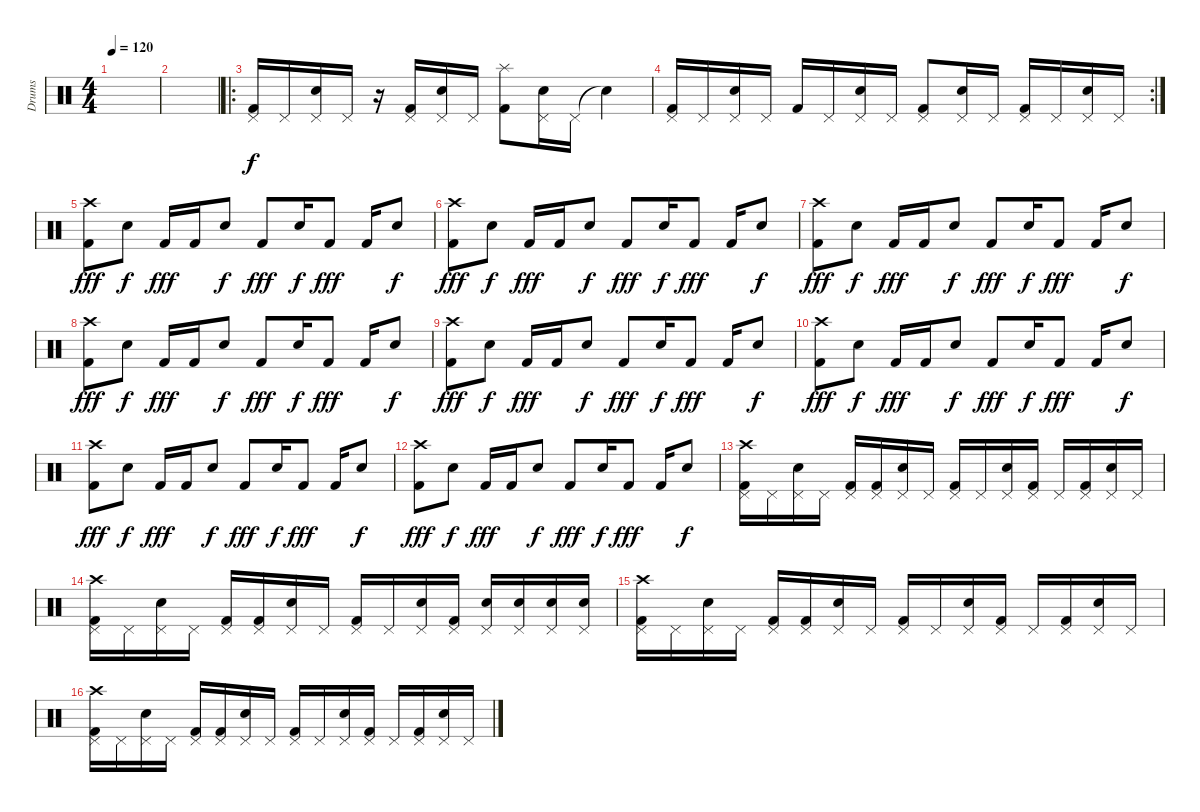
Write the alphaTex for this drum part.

\track ("Drums" "Drums") {instrument percussion}
\staff {score}
\articulation defaults
\ts (4 4)
\tempo 120
\clef neutral
\ks c
|
|
\ro
("Pedal Hi-Hat (hit)" "Kick (hit) 2").16 "Pedal Hi-Hat (hit)".16 ("Pedal Hi-Hat (hit)" "Electric Snare (hit)").16 "Pedal Hi-Hat (hit)".16 r.16 ("Pedal Hi-Hat (hit)" "Kick (hit) 2").16 ("Pedal Hi-Hat (hit)" "Electric Snare (hit)").16 "Pedal Hi-Hat (hit)".16 ("Splash (hit)" "Kick (hit) 2").8 ("Pedal Hi-Hat (hit)" "Electric Snare (hit)").16 "Pedal Hi-Hat (hit)".16 "Snare (hit)"{t}.4 |
\rc 2
("Pedal Hi-Hat (hit)" "Kick (hit) 2").16 "Pedal Hi-Hat (hit)".16 ("Pedal Hi-Hat (hit)" "Electric Snare (hit)").16 "Pedal Hi-Hat (hit)".16 "Kick (hit) 2".16 "Pedal Hi-Hat (hit)".16 ("Pedal Hi-Hat (hit)" "Electric Snare (hit)").16 "Pedal Hi-Hat (hit)".16 ("Pedal Hi-Hat (hit)" "Kick (hit) 2").8 ("Pedal Hi-Hat (hit)" "Electric Snare (hit)").16 "Pedal Hi-Hat (hit)".16 ("Pedal Hi-Hat (hit)" "Kick (hit) 2").16 "Pedal Hi-Hat (hit)".16 ("Pedal Hi-Hat (hit)" "Electric Snare (hit)").16 "Pedal Hi-Hat (hit)".16 |
("Crash high (hit)" "Kick (hit) 2").8{dy fff} "Electric Snare (hit)".8{dy f} "Kick (hit) 2".16{dy fff} "Kick (hit) 2".16 "Electric Snare (hit)".8{dy f} "Kick (hit) 2".8{dy fff} "Electric Snare (hit)".16{dy f} "Kick (hit) 2".8{dy fff} "Kick (hit) 2".16 "Electric Snare (hit)".8{dy f} |
("Crash high (hit)" "Kick (hit) 2").8{dy fff} "Electric Snare (hit)".8{dy f} "Kick (hit) 2".16{dy fff} "Kick (hit) 2".16 "Electric Snare (hit)".8{dy f} "Kick (hit) 2".8{dy fff} "Electric Snare (hit)".16{dy f} "Kick (hit) 2".8{dy fff} "Kick (hit) 2".16 "Electric Snare (hit)".8{dy f} |
("Crash high (hit)" "Kick (hit) 2").8{dy fff} "Electric Snare (hit)".8{dy f} "Kick (hit) 2".16{dy fff} "Kick (hit) 2".16 "Electric Snare (hit)".8{dy f} "Kick (hit) 2".8{dy fff} "Electric Snare (hit)".16{dy f} "Kick (hit) 2".8{dy fff} "Kick (hit) 2".16 "Electric Snare (hit)".8{dy f} |
("Crash high (hit)" "Kick (hit) 2").8{dy fff} "Electric Snare (hit)".8{dy f} "Kick (hit) 2".16{dy fff} "Kick (hit) 2".16 "Electric Snare (hit)".8{dy f} "Kick (hit) 2".8{dy fff} "Electric Snare (hit)".16{dy f} "Kick (hit) 2".8{dy fff} "Kick (hit) 2".16 "Electric Snare (hit)".8{dy f} |
("Crash high (hit)" "Kick (hit) 2").8{dy fff} "Electric Snare (hit)".8{dy f} "Kick (hit) 2".16{dy fff} "Kick (hit) 2".16 "Electric Snare (hit)".8{dy f} "Kick (hit) 2".8{dy fff} "Electric Snare (hit)".16{dy f} "Kick (hit) 2".8{dy fff} "Kick (hit) 2".16 "Electric Snare (hit)".8{dy f} |
("Crash high (hit)" "Kick (hit) 2").8{dy fff} "Electric Snare (hit)".8{dy f} "Kick (hit) 2".16{dy fff} "Kick (hit) 2".16 "Electric Snare (hit)".8{dy f} "Kick (hit) 2".8{dy fff} "Electric Snare (hit)".16{dy f} "Kick (hit) 2".8{dy fff} "Kick (hit) 2".16 "Electric Snare (hit)".8{dy f} |
("Crash high (hit)" "Kick (hit) 2").8{dy fff} "Electric Snare (hit)".8{dy f} "Kick (hit) 2".16{dy fff} "Kick (hit) 2".16 "Electric Snare (hit)".8{dy f} "Kick (hit) 2".8{dy fff} "Electric Snare (hit)".16{dy f} "Kick (hit) 2".8{dy fff} "Kick (hit) 2".16 "Electric Snare (hit)".8{dy f} |
("Crash high (hit)" "Kick (hit) 2").8{dy fff} "Electric Snare (hit)".8{dy f} "Kick (hit) 2".16{dy fff} "Kick (hit) 2".16 "Electric Snare (hit)".8{dy f} "Kick (hit) 2".8{dy fff} "Electric Snare (hit)".16{dy f} "Kick (hit) 2".8{dy fff} "Kick (hit) 2".16 "Electric Snare (hit)".8{dy f} |
("Crash high (hit)" "Pedal Hi-Hat (hit)" "Kick (hit) 2").16 "Pedal Hi-Hat (hit)".16 ("Pedal Hi-Hat (hit)" "Electric Snare (hit)").16 "Pedal Hi-Hat (hit)".16 ("Pedal Hi-Hat (hit)" "Kick (hit) 2").16 ("Pedal Hi-Hat (hit)" "Kick (hit) 2").16 ("Pedal Hi-Hat (hit)" "Electric Snare (hit)").16 "Pedal Hi-Hat (hit)".16 ("Pedal Hi-Hat (hit)" "Kick (hit) 2").16 "Pedal Hi-Hat (hit)".16 ("Pedal Hi-Hat (hit)" "Electric Snare (hit)").16 ("Pedal Hi-Hat (hit)" "Kick (hit) 2").16 "Pedal Hi-Hat (hit)".16 ("Pedal Hi-Hat (hit)" "Kick (hit) 2").16 ("Pedal Hi-Hat (hit)" "Electric Snare (hit)").16 "Pedal Hi-Hat (hit)".16 |
("Crash high (hit)" "Pedal Hi-Hat (hit)" "Kick (hit) 2").16 "Pedal Hi-Hat (hit)".16 ("Pedal Hi-Hat (hit)" "Electric Snare (hit)").16 "Pedal Hi-Hat (hit)".16 ("Pedal Hi-Hat (hit)" "Kick (hit) 2").16 ("Pedal Hi-Hat (hit)" "Kick (hit) 2").16 ("Pedal Hi-Hat (hit)" "Electric Snare (hit)").16 "Pedal Hi-Hat (hit)".16 ("Pedal Hi-Hat (hit)" "Kick (hit) 2").16 "Pedal Hi-Hat (hit)".16 ("Pedal Hi-Hat (hit)" "Electric Snare (hit)").16 ("Pedal Hi-Hat (hit)" "Kick (hit) 2").16 ("Pedal Hi-Hat (hit)" "Electric Snare (hit)").16 ("Pedal Hi-Hat (hit)" "Electric Snare (hit)").16 ("Pedal Hi-Hat (hit)" "Electric Snare (hit)").16 ("Pedal Hi-Hat (hit)" "Electric Snare (hit)").16 |
("Crash high (hit)" "Pedal Hi-Hat (hit)" "Kick (hit) 2").16 "Pedal Hi-Hat (hit)".16 ("Pedal Hi-Hat (hit)" "Electric Snare (hit)").16 "Pedal Hi-Hat (hit)".16 ("Pedal Hi-Hat (hit)" "Kick (hit) 2").16 ("Pedal Hi-Hat (hit)" "Kick (hit) 2").16 ("Pedal Hi-Hat (hit)" "Electric Snare (hit)").16 "Pedal Hi-Hat (hit)".16 ("Pedal Hi-Hat (hit)" "Kick (hit) 2").16 "Pedal Hi-Hat (hit)".16 ("Pedal Hi-Hat (hit)" "Electric Snare (hit)").16 ("Pedal Hi-Hat (hit)" "Kick (hit) 2").16 "Pedal Hi-Hat (hit)".16 ("Pedal Hi-Hat (hit)" "Kick (hit) 2").16 ("Pedal Hi-Hat (hit)" "Electric Snare (hit)").16 "Pedal Hi-Hat (hit)".16 |
("Crash high (hit)" "Pedal Hi-Hat (hit)" "Kick (hit) 2").16 "Pedal Hi-Hat (hit)".16 ("Pedal Hi-Hat (hit)" "Electric Snare (hit)").16 "Pedal Hi-Hat (hit)".16 ("Pedal Hi-Hat (hit)" "Kick (hit) 2").16 ("Pedal Hi-Hat (hit)" "Kick (hit) 2").16 ("Pedal Hi-Hat (hit)" "Electric Snare (hit)").16 "Pedal Hi-Hat (hit)".16 ("Pedal Hi-Hat (hit)" "Kick (hit) 2").16 "Pedal Hi-Hat (hit)".16 ("Pedal Hi-Hat (hit)" "Electric Snare (hit)").16 ("Pedal Hi-Hat (hit)" "Kick (hit) 2").16 "Pedal Hi-Hat (hit)".16 ("Pedal Hi-Hat (hit)" "Kick (hit) 2").16 ("Pedal Hi-Hat (hit)" "Electric Snare (hit)").16 "Pedal Hi-Hat (hit)".16
